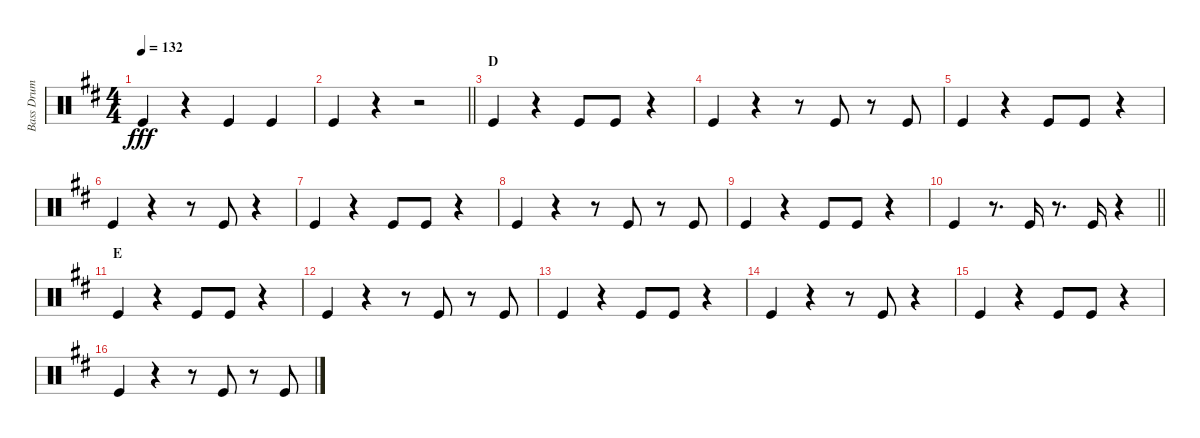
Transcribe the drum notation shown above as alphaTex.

\track ("Bass Drum" "Bass Drum") {instrument percussion}
\staff {score}
\articulation defaults
\ts (4 4)
\tempo 132
\clef neutral
\ks d "Kick (hit)".4{dy fff}
r.4 "Kick (hit)".4 "Kick (hit)".4 |
\barLineRight lightlight "Kick (hit)".4
r.4 r.2 |
\section ("" "D")
"Kick (hit)".4 r.4 "Kick (hit)".8 "Kick (hit)".8 r.4 |
"Kick (hit)".4 r.4 r.8 "Kick (hit)".8 r.8 "Kick (hit)".8 |
"Kick (hit)".4 r.4 "Kick (hit)".8 "Kick (hit)".8 r.4 |
"Kick (hit)".4 r.4 r.8 "Kick (hit)".8 r.4 |
"Kick (hit)".4 r.4 "Kick (hit)".8 "Kick (hit)".8 r.4 |
"Kick (hit)".4 r.4 r.8 "Kick (hit)".8 r.8 "Kick (hit)".8 |
"Kick (hit)".4 r.4 "Kick (hit)".8 "Kick (hit)".8 r.4 |
\barLineRight lightlight "Kick (hit)".4
r.8{d} "Kick (hit)".16 r.8{d} "Kick (hit)".16 r.4 |
\section ("" "E")
"Kick (hit)".4 r.4 "Kick (hit)".8 "Kick (hit)".8 r.4 |
"Kick (hit)".4 r.4 r.8 "Kick (hit)".8 r.8 "Kick (hit)".8 |
"Kick (hit)".4 r.4 "Kick (hit)".8 "Kick (hit)".8 r.4 |
"Kick (hit)".4 r.4 r.8 "Kick (hit)".8 r.4 |
"Kick (hit)".4 r.4 "Kick (hit)".8 "Kick (hit)".8 r.4 |
"Kick (hit)".4 r.4 r.8 "Kick (hit)".8 r.8 "Kick (hit)".8
